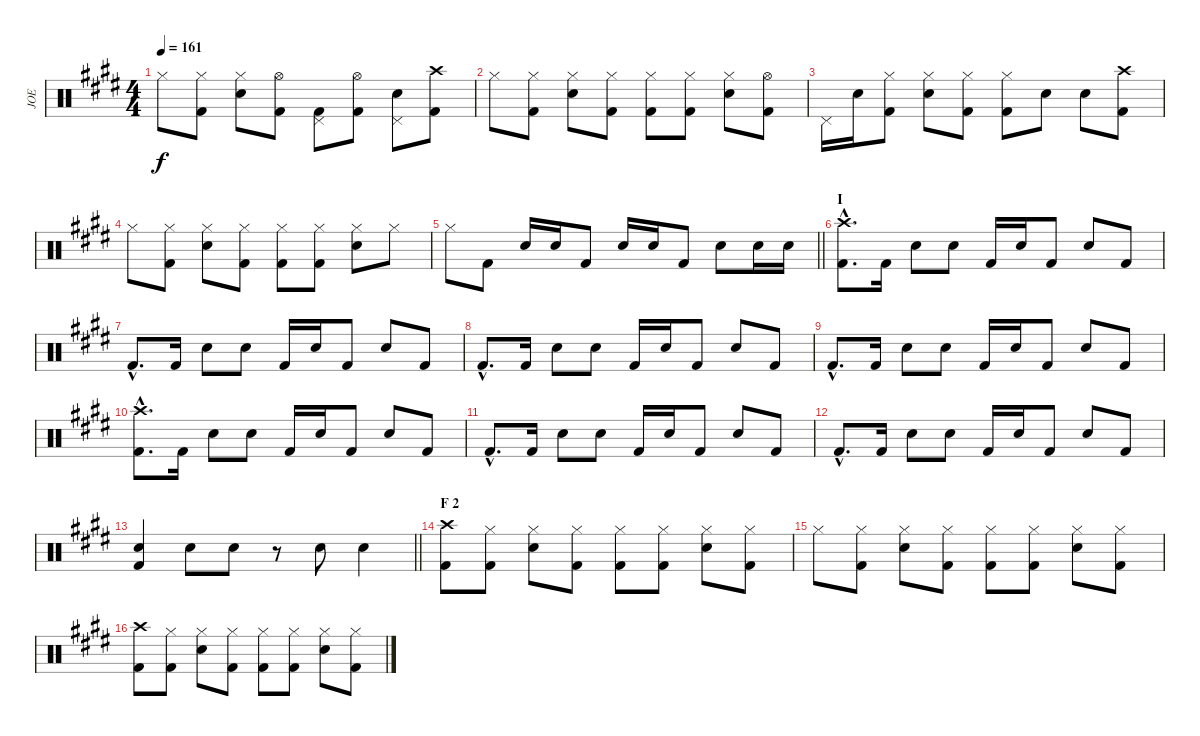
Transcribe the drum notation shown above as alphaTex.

\track ("JOE" "JOE") {instrument percussion}
\staff {score}
\articulation defaults
\ts (4 4)
\tempo 161
\clef neutral
\ks e "Hi-Hat (closed)".8{dy f}
("Hi-Hat (closed)" "Kick (hit) 2").8 ("Hi-Hat (closed)" "Snare (hit) 2").8 ("Hi-Hat (open)" "Kick (hit) 2").8 ("Pedal Hi-Hat (hit)" "Kick (hit) 2").8 ("Hi-Hat (open)" "Kick (hit) 2").8 ("Pedal Hi-Hat (hit)" "Snare (hit) 2").8 ("Crash high (hit)" "Kick (hit) 2").8 |
"Hi-Hat (closed)".8 ("Hi-Hat (closed)" "Kick (hit) 2").8 ("Hi-Hat (closed)" "Snare (hit) 2").8 ("Hi-Hat (closed)" "Kick (hit) 2").8 ("Hi-Hat (closed)" "Kick (hit) 2").8 ("Hi-Hat (closed)" "Kick (hit) 2").8 ("Hi-Hat (closed)" "Snare (hit) 2").8 ("Hi-Hat (open)" "Kick (hit) 2").8 |
"Pedal Hi-Hat (hit)".16 "Snare (hit) 2".16 ("Hi-Hat (closed)" "Kick (hit) 2").8 ("Hi-Hat (closed)" "Snare (hit) 2").8 ("Hi-Hat (closed)" "Kick (hit) 2").8 ("Hi-Hat (closed)" "Kick (hit) 2").8 "Snare (hit) 2".8 "Snare (hit) 2".8 ("Crash high (hit)" "Kick (hit) 2").8 |
"Hi-Hat (closed)".8 ("Hi-Hat (closed)" "Kick (hit) 2").8 ("Hi-Hat (closed)" "Snare (hit) 2").8 ("Hi-Hat (closed)" "Kick (hit) 2").8 ("Hi-Hat (closed)" "Kick (hit) 2").8 ("Hi-Hat (closed)" "Kick (hit) 2").8 ("Hi-Hat (closed)" "Snare (hit) 2").8 "Hi-Hat (closed)".8 |
\barLineRight lightlight "Hi-Hat (closed)".8 "Kick (hit) 2".8 "Snare (hit) 2".16 "Snare (hit) 2".16 "Kick (hit) 2".8 "Snare (hit) 2".16 "Snare (hit) 2".16 "Kick (hit) 2".8 "Snare (hit) 2".8 "Snare (hit) 2".16 "Snare (hit) 2".16
|
\section ("" "I")
("Crash high (hit)"{hac} "Kick (hit) 2"{hac}).8{d} "Kick (hit) 2".16 "Snare (hit) 2".8 "Snare (hit) 2".8 "Kick (hit) 2".16 "Snare (hit) 2".16 "Kick (hit) 2".8 "Snare (hit) 2".8 "Kick (hit) 2".8 |
"Kick (hit) 2"{hac}.8{d} "Kick (hit) 2".16 "Snare (hit) 2".8 "Snare (hit) 2".8 "Kick (hit) 2".16 "Snare (hit) 2".16 "Kick (hit) 2".8 "Snare (hit) 2".8 "Kick (hit) 2".8 |
"Kick (hit) 2"{hac}.8{d} "Kick (hit) 2".16 "Snare (hit) 2".8 "Snare (hit) 2".8 "Kick (hit) 2".16 "Snare (hit) 2".16 "Kick (hit) 2".8 "Snare (hit) 2".8 "Kick (hit) 2".8 |
"Kick (hit) 2"{hac}.8{d} "Kick (hit) 2".16 "Snare (hit) 2".8 "Snare (hit) 2".8 "Kick (hit) 2".16 "Snare (hit) 2".16 "Kick (hit) 2".8 "Snare (hit) 2".8 "Kick (hit) 2".8 |
("Crash high (hit)"{hac} "Kick (hit) 2"{hac}).8{d} "Kick (hit) 2".16 "Snare (hit) 2".8 "Snare (hit) 2".8 "Kick (hit) 2".16 "Snare (hit) 2".16 "Kick (hit) 2".8 "Snare (hit) 2".8 "Kick (hit) 2".8 |
"Kick (hit) 2"{hac}.8{d} "Kick (hit) 2".16 "Snare (hit) 2".8 "Snare (hit) 2".8 "Kick (hit) 2".16 "Snare (hit) 2".16 "Kick (hit) 2".8 "Snare (hit) 2".8 "Kick (hit) 2".8 |
"Kick (hit) 2"{hac}.8{d} "Kick (hit) 2".16 "Snare (hit) 2".8 "Snare (hit) 2".8 "Kick (hit) 2".16 "Snare (hit) 2".16 "Kick (hit) 2".8 "Snare (hit) 2".8 "Kick (hit) 2".8 |
\barLineRight lightlight
("Snare (hit) 2" "Kick (hit) 2").4 "Snare (hit) 2".8 "Snare (hit) 2".8 r.8 "Snare (hit) 2".8 "Snare (hit) 2".4 |
\section ("" "F 2")
("Crash high (hit)" "Kick (hit) 2").8 ("Hi-Hat (closed)" "Kick (hit) 2").8 ("Hi-Hat (closed)" "Snare (hit) 2").8 ("Hi-Hat (closed)" "Kick (hit) 2").8 ("Hi-Hat (closed)" "Kick (hit) 2").8 ("Hi-Hat (closed)" "Kick (hit) 2").8 ("Hi-Hat (closed)" "Snare (hit) 2").8 ("Hi-Hat (closed)" "Kick (hit) 2").8 |
"Hi-Hat (closed)".8 ("Hi-Hat (closed)" "Kick (hit) 2").8 ("Hi-Hat (closed)" "Snare (hit) 2").8 ("Hi-Hat (closed)" "Kick (hit) 2").8 ("Hi-Hat (closed)" "Kick (hit) 2").8 ("Hi-Hat (closed)" "Kick (hit) 2").8 ("Hi-Hat (closed)" "Snare (hit) 2").8 ("Hi-Hat (closed)" "Kick (hit) 2").8 |
("Crash high (hit)" "Kick (hit) 2").8 ("Hi-Hat (closed)" "Kick (hit) 2").8 ("Hi-Hat (closed)" "Snare (hit) 2").8 ("Hi-Hat (closed)" "Kick (hit) 2").8 ("Hi-Hat (closed)" "Kick (hit) 2").8 ("Hi-Hat (closed)" "Kick (hit) 2").8 ("Hi-Hat (closed)" "Snare (hit) 2").8 ("Hi-Hat (closed)" "Kick (hit) 2").8
